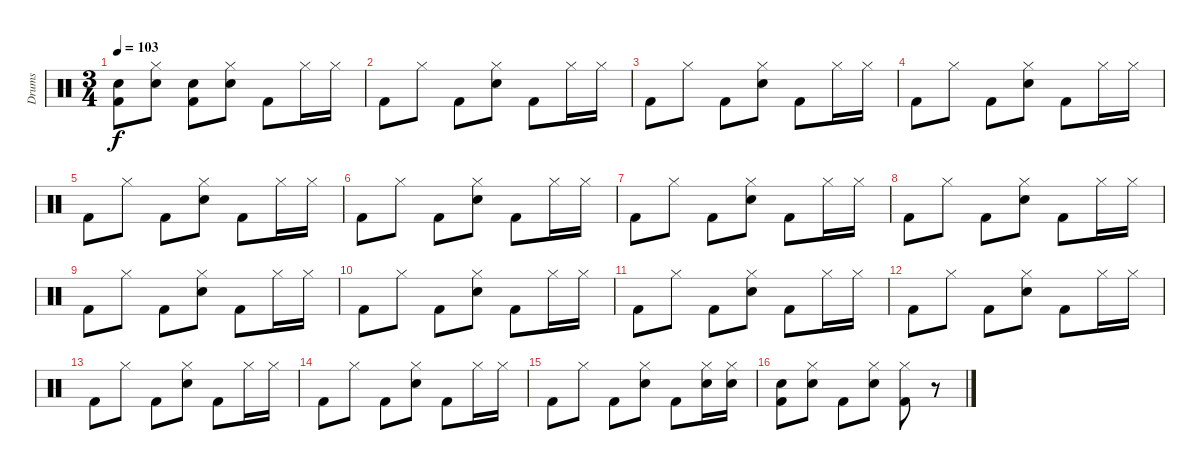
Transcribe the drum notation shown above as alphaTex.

\track ("Drums" "Drums") {instrument percussion}
\staff {score}
\articulation defaults
\ts (3 4)
\tempo 103
\clef neutral
\ks c
("Snare (hit) 2" "Kick (hit) 2").8{dy f} ("Hi-Hat (closed)" "Snare (hit) 2").8 ("Snare (hit) 2" "Kick (hit) 2").8 ("Hi-Hat (closed)" "Snare (hit) 2").8 "Kick (hit) 2".8 "Hi-Hat (closed)".16 "Hi-Hat (closed)".16 |
"Kick (hit) 2".8 "Hi-Hat (closed)".8 "Kick (hit) 2".8 ("Hi-Hat (closed)" "Snare (hit) 2").8 "Kick (hit) 2".8 "Hi-Hat (closed)".16 "Hi-Hat (closed)".16 |
"Kick (hit) 2".8 "Hi-Hat (closed)".8 "Kick (hit) 2".8 ("Hi-Hat (closed)" "Snare (hit) 2").8 "Kick (hit) 2".8 "Hi-Hat (closed)".16 "Hi-Hat (closed)".16 |
"Kick (hit) 2".8 "Hi-Hat (closed)".8 "Kick (hit) 2".8 ("Hi-Hat (closed)" "Snare (hit) 2").8 "Kick (hit) 2".8 "Hi-Hat (closed)".16 "Hi-Hat (closed)".16 |
"Kick (hit) 2".8 "Hi-Hat (closed)".8 "Kick (hit) 2".8 ("Hi-Hat (closed)" "Snare (hit) 2").8 "Kick (hit) 2".8 "Hi-Hat (closed)".16 "Hi-Hat (closed)".16 |
"Kick (hit) 2".8 "Hi-Hat (closed)".8 "Kick (hit) 2".8 ("Hi-Hat (closed)" "Snare (hit) 2").8 "Kick (hit) 2".8 "Hi-Hat (closed)".16 "Hi-Hat (closed)".16 |
"Kick (hit) 2".8 "Hi-Hat (closed)".8 "Kick (hit) 2".8 ("Hi-Hat (closed)" "Snare (hit) 2").8 "Kick (hit) 2".8 "Hi-Hat (closed)".16 "Hi-Hat (closed)".16 |
"Kick (hit) 2".8 "Hi-Hat (closed)".8 "Kick (hit) 2".8 ("Hi-Hat (closed)" "Snare (hit) 2").8 "Kick (hit) 2".8 "Hi-Hat (closed)".16 "Hi-Hat (closed)".16 |
"Kick (hit) 2".8 "Hi-Hat (closed)".8 "Kick (hit) 2".8 ("Hi-Hat (closed)" "Snare (hit) 2").8 "Kick (hit) 2".8 "Hi-Hat (closed)".16 "Hi-Hat (closed)".16 |
"Kick (hit) 2".8 "Hi-Hat (closed)".8 "Kick (hit) 2".8 ("Hi-Hat (closed)" "Snare (hit) 2").8 "Kick (hit) 2".8 "Hi-Hat (closed)".16 "Hi-Hat (closed)".16 |
"Kick (hit) 2".8 "Hi-Hat (closed)".8 "Kick (hit) 2".8 ("Hi-Hat (closed)" "Snare (hit) 2").8 "Kick (hit) 2".8 "Hi-Hat (closed)".16 "Hi-Hat (closed)".16 |
"Kick (hit) 2".8 "Hi-Hat (closed)".8 "Kick (hit) 2".8 ("Hi-Hat (closed)" "Snare (hit) 2").8 "Kick (hit) 2".8 "Hi-Hat (closed)".16 "Hi-Hat (closed)".16 |
"Kick (hit) 2".8 "Hi-Hat (closed)".8 "Kick (hit) 2".8 ("Hi-Hat (closed)" "Snare (hit) 2").8 "Kick (hit) 2".8 "Hi-Hat (closed)".16 "Hi-Hat (closed)".16 |
"Kick (hit) 2".8 "Hi-Hat (closed)".8 "Kick (hit) 2".8 ("Hi-Hat (closed)" "Snare (hit) 2").8 "Kick (hit) 2".8 "Hi-Hat (closed)".16 "Hi-Hat (closed)".16 |
"Kick (hit) 2".8 "Hi-Hat (closed)".8 "Kick (hit) 2".8 ("Hi-Hat (closed)" "Snare (hit) 2").8 "Kick (hit) 2".8 ("Hi-Hat (closed)" "Snare (hit) 2").16 ("Hi-Hat (closed)" "Snare (hit) 2").16 |
("Snare (hit) 2" "Kick (hit) 2").8 ("Hi-Hat (closed)" "Snare (hit) 2").8 "Kick (hit) 2".8 ("Hi-Hat (closed)" "Snare (hit) 2").8 ("Hi-Hat (closed)" "Kick (hit) 2").8 r.8
